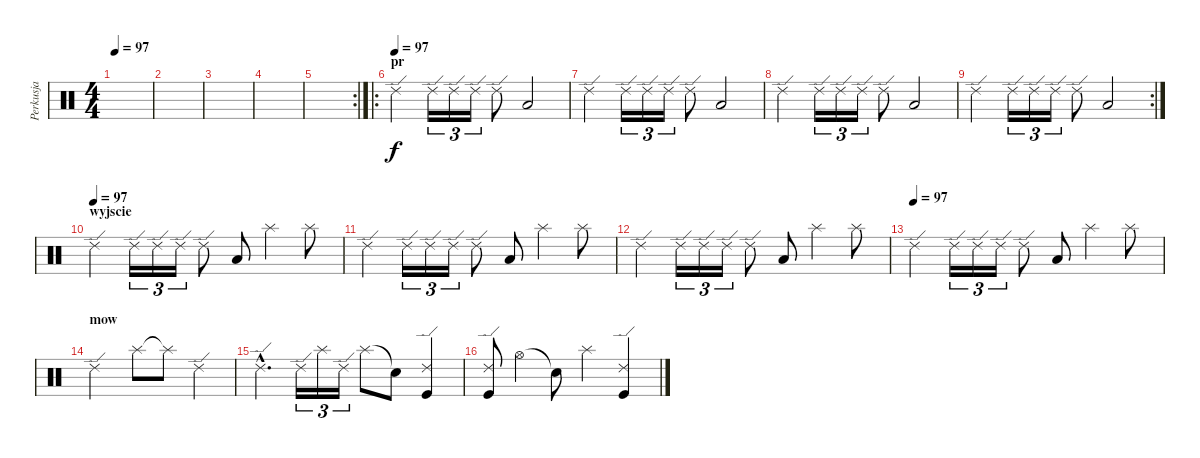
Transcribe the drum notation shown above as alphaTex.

\track ("Perkusja" "Perkusja") {instrument percussion}
\staff {score}
\articulation defaults
\ts (4 4)
\tempo 97
\clef neutral
\ks c
|
|
|
|
\rc 2
|
\ro
\section ("" "pr")
\tempo (97)
"Ride (edge) 2".4 "Ride (edge) 2".16{tu (3 2)} "Ride (edge) 2".16{tu (3 2)} "Ride (edge) 2".16{tu (3 2)} "Ride (edge) 2".8 "Low Floor Tom (hit)".2 |
"Ride (edge) 2".4 "Ride (edge) 2".16{tu (3 2)} "Ride (edge) 2".16{tu (3 2)} "Ride (edge) 2".16{tu (3 2)} "Ride (edge) 2".8 "Low Floor Tom (hit)".2 |
"Ride (edge) 2".4 "Ride (edge) 2".16{tu (3 2)} "Ride (edge) 2".16{tu (3 2)} "Ride (edge) 2".16{tu (3 2)} "Ride (edge) 2".8 "Low Floor Tom (hit)".2 |
\rc 2 "Ride (edge) 2".4 "Ride (edge) 2".16{tu (3 2)} "Ride (edge) 2".16{tu (3 2)} "Ride (edge) 2".16{tu (3 2)} "Ride (edge) 2".8 "Low Floor Tom (hit)".2
|
\section ("" "wyjscie")
\tempo (97)
"Ride (edge) 2".4 "Ride (edge) 2".16{tu (3 2)} "Ride (edge) 2".16{tu (3 2)} "Ride (edge) 2".16{tu (3 2)} "Ride (edge) 2".8 "Low Floor Tom (hit)".8 "Splash (hit)".4 "Splash (hit)".8 |
"Ride (edge) 2".4 "Ride (edge) 2".16{tu (3 2)} "Ride (edge) 2".16{tu (3 2)} "Ride (edge) 2".16{tu (3 2)} "Ride (edge) 2".8 "Low Floor Tom (hit)".8 "Splash (hit)".4 "Splash (hit)".8 |
"Ride (edge) 2".4 "Ride (edge) 2".16{tu (3 2)} "Ride (edge) 2".16{tu (3 2)} "Ride (edge) 2".16{tu (3 2)} "Ride (edge) 2".8 "Low Floor Tom (hit)".8 "Splash (hit)".4 "Splash (hit)".8 |
\tempo (97)
"Ride (edge) 2".4 "Ride (edge) 2".16{tu (3 2)} "Ride (edge) 2".16{tu (3 2)} "Ride (edge) 2".16{tu (3 2)} "Ride (edge) 2".8 "Low Floor Tom (hit)".8 "Splash (hit)".4 "Splash (hit)".8 |
\section ("" "mow")
"Ride (edge) 2".2 "Splash (hit)".8 "Splash (hit)"{t}.8 "Ride (edge) 2".4 |
"Ride (edge) 2"{hac}.4{d} "Ride (edge) 2".16{tu (3 2)} "Splash (hit)".16{tu (3 2)} "Ride (edge) 2".16{tu (3 2)} "Splash (hit)".8 "Snare (hit)"{t}.8 ("Ride (edge) 2" "Kick (hit)").4 |
("Ride (edge) 2" "Kick (hit)").8 "Hi-Hat (open)".4 "Snare (hit)"{t}.8 "Splash (hit)".4 ("Ride (edge) 2" "Kick (hit)").4
